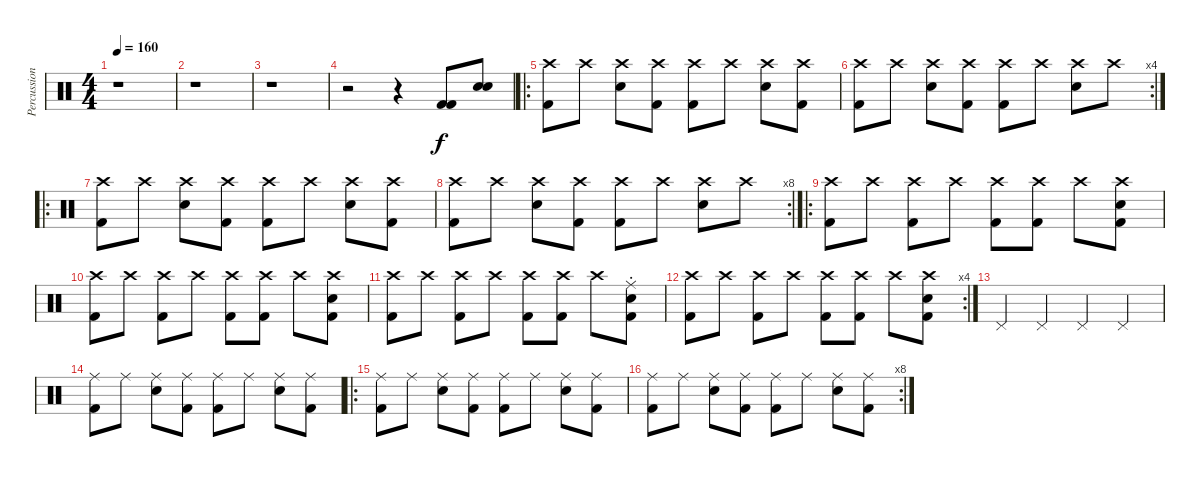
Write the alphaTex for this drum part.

\track ("Percussion" "Percussion") {instrument percussion}
\staff {score}
\articulation defaults
\ts (4 4)
\tempo 160
\clef neutral
\ks c
r.1{dy f} |
r.1 |
r.1 |
r.2 r.4 ("Kick (hit) 2" "Kick (hit) 2").8 ("Snare (hit) 2" "Snare (hit) 2").8 |
\ro
("Kick (hit) 2" "Crash high (hit)").8 "Crash high (hit)".8 ("Snare (hit) 2" "Crash high (hit)").8 ("Kick (hit) 2" "Crash high (hit)").8 ("Kick (hit) 2" "Crash high (hit)").8 "Crash high (hit)".8 ("Snare (hit) 2" "Crash high (hit)").8 ("Kick (hit) 2" "Crash high (hit)").8 |
\rc 4
("Kick (hit) 2" "Crash high (hit)").8 "Crash high (hit)".8 ("Snare (hit) 2" "Crash high (hit)").8 ("Kick (hit) 2" "Crash high (hit)").8 ("Kick (hit) 2" "Crash high (hit)").8 "Crash high (hit)".8 ("Snare (hit) 2" "Crash high (hit)").8 "Crash high (hit)".8 |
\ro
("Kick (hit) 2" "Crash high (hit)").8 "Crash high (hit)".8 ("Snare (hit) 2" "Crash high (hit)").8 ("Kick (hit) 2" "Crash high (hit)").8 ("Kick (hit) 2" "Crash high (hit)").8 "Crash high (hit)".8 ("Snare (hit) 2" "Crash high (hit)").8 ("Kick (hit) 2" "Crash high (hit)").8 |
\rc 8
("Kick (hit) 2" "Crash high (hit)").8 "Crash high (hit)".8 ("Snare (hit) 2" "Crash high (hit)").8 ("Kick (hit) 2" "Crash high (hit)").8 ("Kick (hit) 2" "Crash high (hit)").8 "Crash high (hit)".8 ("Snare (hit) 2" "Crash high (hit)").8 "Crash high (hit)".8 |
\ro
("Kick (hit) 2" "Crash high (hit)").8 "Crash high (hit)".8 ("Kick (hit) 2" "Crash high (hit)").8 "Crash high (hit)".8 ("Kick (hit) 2" "Crash high (hit)").8 ("Kick (hit) 2" "Crash high (hit)").8 "Crash high (hit)".8 ("Kick (hit) 2" "Snare (hit) 2" "Crash high (hit)").8 |
("Kick (hit) 2" "Crash high (hit)").8 "Crash high (hit)".8 ("Kick (hit) 2" "Crash high (hit)").8 "Crash high (hit)".8 ("Kick (hit) 2" "Crash high (hit)").8 ("Kick (hit) 2" "Crash high (hit)").8 "Crash high (hit)".8 ("Kick (hit) 2" "Snare (hit) 2" "Crash high (hit)").8 |
("Kick (hit) 2" "Crash high (hit)").8 "Crash high (hit)".8 ("Kick (hit) 2" "Crash high (hit)").8 "Crash high (hit)".8 ("Kick (hit) 2" "Crash high (hit)").8 ("Kick (hit) 2" "Crash high (hit)").8 "Crash high (hit)".8 ("Kick (hit) 2" "Snare (hit) 2" "Ride (choke)").8 |
\rc 4
("Kick (hit) 2" "Crash high (hit)").8 "Crash high (hit)".8 ("Kick (hit) 2" "Crash high (hit)").8 "Crash high (hit)".8 ("Kick (hit) 2" "Crash high (hit)").8 ("Kick (hit) 2" "Crash high (hit)").8 "Crash high (hit)".8 ("Kick (hit) 2" "Snare (hit) 2" "Crash high (hit)").8 |
"Pedal Hi-Hat (hit)".4 "Pedal Hi-Hat (hit)".4 "Pedal Hi-Hat (hit)".4 "Pedal Hi-Hat (hit)".4 |
("Kick (hit) 2" "Ride (middle)").8 "Ride (middle)".8 ("Snare (hit) 2" "Ride (middle)").8 ("Kick (hit) 2" "Ride (middle)").8 ("Kick (hit) 2" "Ride (middle)").8 "Ride (middle)".8 ("Snare (hit) 2" "Ride (middle)").8 ("Kick (hit) 2" "Ride (middle)").8 |
\ro
("Kick (hit) 2" "Ride (middle)").8 "Ride (middle)".8 ("Snare (hit) 2" "Ride (middle)").8 ("Kick (hit) 2" "Ride (middle)").8 ("Kick (hit) 2" "Ride (middle)").8 "Ride (middle)".8 ("Snare (hit) 2" "Ride (middle)").8 ("Kick (hit) 2" "Ride (middle)").8 |
\rc 8
("Kick (hit) 2" "Ride (middle)").8 "Ride (middle)".8 ("Snare (hit) 2" "Ride (middle)").8 ("Kick (hit) 2" "Ride (middle)").8 ("Kick (hit) 2" "Ride (middle)").8 "Ride (middle)".8 ("Snare (hit) 2" "Ride (middle)").8 ("Kick (hit) 2" "Ride (middle)").8
